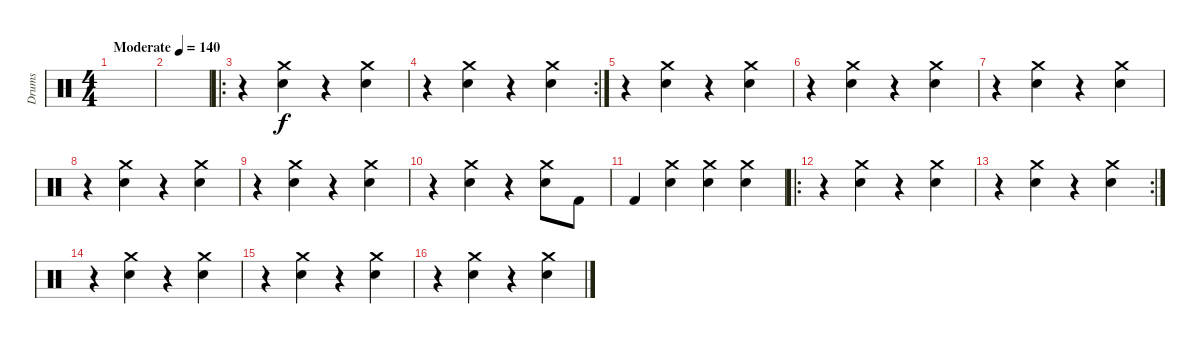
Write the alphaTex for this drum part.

\track ("Drums" "Drums") {instrument percussion}
\staff {score}
\articulation defaults
\ts (4 4)
\tempo (140 "Moderate")
\clef neutral
\ks c
|
|
\ro
r.4 ("Snare (hit) 2" "Crash medium (hit)").4 r.4 ("Snare (hit) 2" "Crash medium (hit)").4 |
\rc 2
r.4 ("Snare (hit) 2" "Crash medium (hit)").4 r.4 ("Snare (hit) 2" "Crash medium (hit)").4 |
r.4 ("Snare (hit) 2" "Crash medium (hit)").4 r.4 ("Snare (hit) 2" "Crash medium (hit)").4 |
r.4 ("Snare (hit) 2" "Crash medium (hit)").4 r.4 ("Snare (hit) 2" "Crash medium (hit)").4 |
r.4 ("Snare (hit) 2" "Crash medium (hit)").4 r.4 ("Snare (hit) 2" "Crash medium (hit)").4 |
r.4 ("Snare (hit) 2" "Crash medium (hit)").4 r.4 ("Snare (hit) 2" "Crash medium (hit)").4 |
r.4 ("Snare (hit) 2" "Crash medium (hit)").4 r.4 ("Snare (hit) 2" "Crash medium (hit)").4 |
r.4 ("Snare (hit) 2" "Crash medium (hit)").4 r.4 ("Snare (hit) 2" "Crash medium (hit)").8 "Kick (hit) 2".8 |
"Kick (hit) 2".4 ("Snare (hit) 2" "Crash medium (hit)").4 ("Snare (hit) 2" "Crash medium (hit)").4 ("Snare (hit) 2" "Crash medium (hit)").4 |
\ro
r.4 ("Snare (hit) 2" "Crash medium (hit)").4 r.4 ("Snare (hit) 2" "Crash medium (hit)").4 |
\rc 2
r.4 ("Snare (hit) 2" "Crash medium (hit)").4 r.4 ("Snare (hit) 2" "Crash medium (hit)").4 |
r.4 ("Snare (hit) 2" "Crash medium (hit)").4 r.4 ("Snare (hit) 2" "Crash medium (hit)").4 |
r.4 ("Snare (hit) 2" "Crash medium (hit)").4 r.4 ("Snare (hit) 2" "Crash medium (hit)").4 |
r.4 ("Snare (hit) 2" "Crash medium (hit)").4 r.4 ("Snare (hit) 2" "Crash medium (hit)").4
